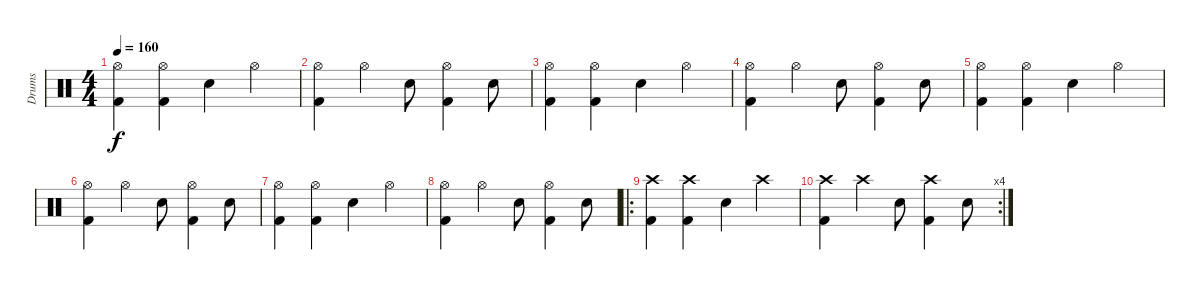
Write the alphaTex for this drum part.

\track ("Drums" "Drums") {instrument percussion}
\staff {score}
\articulation defaults
\ts (4 4)
\tempo 160
\clef neutral
\ks c
("Hi-Hat (open)" "Kick (hit) 2").4{dy f} ("Hi-Hat (open)" "Kick (hit) 2").4 "Electric Snare (hit)".4 "Hi-Hat (open)".4 |
("Hi-Hat (open)" "Kick (hit) 2").4 "Hi-Hat (open)".4 "Electric Snare (hit)".8 ("Hi-Hat (open)" "Kick (hit) 2").4 "Electric Snare (hit)".8 |
("Hi-Hat (open)" "Kick (hit) 2").4 ("Hi-Hat (open)" "Kick (hit) 2").4 "Electric Snare (hit)".4 "Hi-Hat (open)".4 |
("Hi-Hat (open)" "Kick (hit) 2").4 "Hi-Hat (open)".4 "Electric Snare (hit)".8 ("Hi-Hat (open)" "Kick (hit) 2").4 "Electric Snare (hit)".8 |
("Hi-Hat (open)" "Kick (hit) 2").4 ("Hi-Hat (open)" "Kick (hit) 2").4 "Electric Snare (hit)".4 "Hi-Hat (open)".4 |
("Hi-Hat (open)" "Kick (hit) 2").4 "Hi-Hat (open)".4 "Electric Snare (hit)".8 ("Hi-Hat (open)" "Kick (hit) 2").4 "Electric Snare (hit)".8 |
("Hi-Hat (open)" "Kick (hit) 2").4 ("Hi-Hat (open)" "Kick (hit) 2").4 "Electric Snare (hit)".4 "Hi-Hat (open)".4 |
("Hi-Hat (open)" "Kick (hit) 2").4 "Hi-Hat (open)".4 "Electric Snare (hit)".8 ("Hi-Hat (open)" "Kick (hit) 2").4 "Electric Snare (hit)".8 |
\ro
("Crash high (hit)" "Kick (hit) 2").4 ("Crash high (hit)" "Kick (hit) 2").4 "Electric Snare (hit)".4 "Crash high (hit)".4 |
\rc 4
("Crash high (hit)" "Kick (hit) 2").4 "Crash high (hit)".4 "Electric Snare (hit)".8 ("Crash high (hit)" "Kick (hit) 2").4 "Electric Snare (hit)".8
